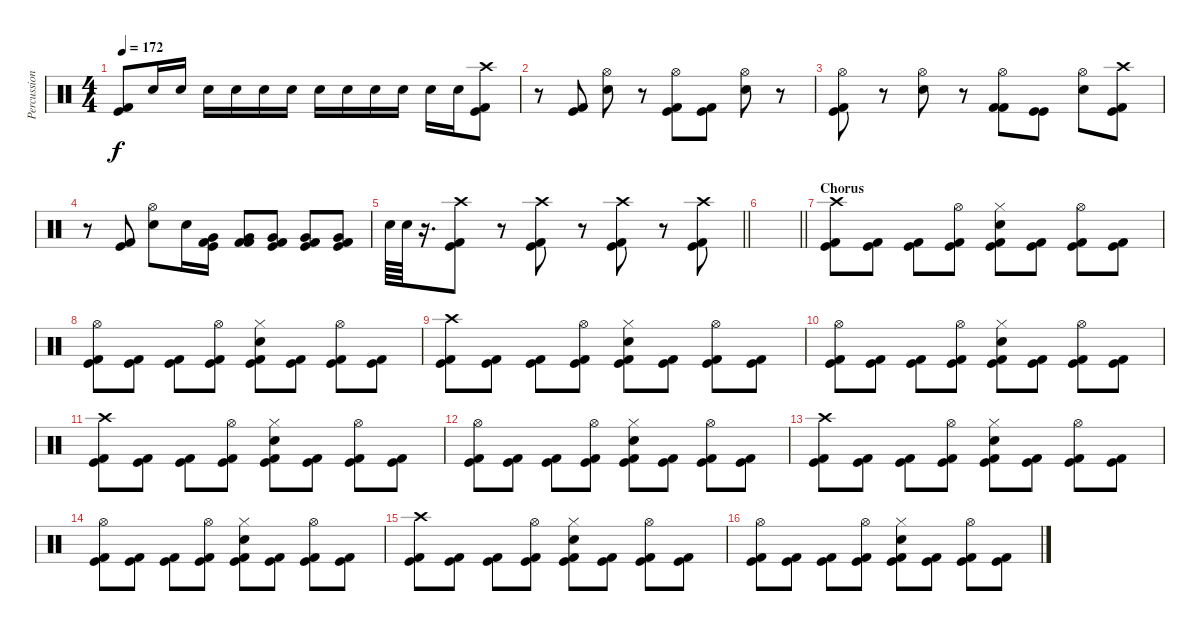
\track ("Percussion" "Percussion") {instrument percussion}
\staff {score}
\articulation defaults
\ts (4 4)
\tempo 172
\clef neutral
\ks c
("Kick (hit)" "Kick (hit) 2").8{dy f} "Snare (hit) 2".16 "Snare (hit) 2".16 "Snare (hit) 2".16 "Snare (hit) 2".16 "Snare (hit) 2".16 "Snare (hit) 2".16 "Snare (hit) 2".16 "Snare (hit) 2".16 "Snare (hit) 2".16 "Snare (hit) 2".16 "Snare (hit) 2".16 "Snare (hit) 2".16 ("Crash high (hit)" "Kick (hit)" "Kick (hit) 2").8 |
r.8 ("Kick (hit)" "Kick (hit) 2").8 ("Hi-Hat (open)" "Snare (hit) 2").8 r.8 ("Hi-Hat (open)" "Kick (hit)" "Kick (hit) 2").8 ("Kick (hit)" "Kick (hit) 2").8 ("Hi-Hat (open)" "Snare (hit) 2").8 r.8 |
("Hi-Hat (open)" "Kick (hit)" "Kick (hit) 2").8 r.8 ("Hi-Hat (open)" "Snare (hit) 2").8 r.8 ("Hi-Hat (open)" "Kick (hit) 2" "Kick (hit) 2").8 ("Kick (hit)" "Kick (hit)").8 ("Hi-Hat (open)" "Snare (hit) 2").8 ("Crash high (hit)" "Kick (hit)" "Kick (hit) 2").8 |
r.8 ("Kick (hit)" "Kick (hit) 2").8 ("Hi-Hat (open)" "Snare (hit) 2").8 "Snare (hit) 2".16 ("Very Low Tom (hit)" "Kick (hit)" "Kick (hit) 2").16 ("Very Low Tom (hit)" "Kick (hit) 2" "Kick (hit) 2").8 ("Very Low Tom (hit)" "Kick (hit)" "Kick (hit) 2").8 ("Very Low Tom (hit)" "Kick (hit)" "Kick (hit) 2").8 ("Very Low Tom (hit)" "Kick (hit)" "Kick (hit) 2").8 |
\barLineRight lightlight "Snare (hit) 2".64 "Snare (hit) 2".64
r.16{d} ("Crash high (hit)" "Kick (hit)" "Kick (hit) 2").8 r.8 ("Crash high (hit)" "Kick (hit)" "Kick (hit) 2").8 r.8 ("Crash high (hit)" "Kick (hit)" "Kick (hit) 2").8 r.8 ("Crash high (hit)" "Kick (hit)" "Kick (hit) 2").8 |
\barLineRight lightlight
|
\section ("" "Chorus")
("Crash high (hit)" "Kick (hit)" "Kick (hit) 2").8 ("Kick (hit)" "Kick (hit) 2").8 ("Kick (hit)" "Kick (hit) 2").8 ("Hi-Hat (open)" "Kick (hit)" "Kick (hit) 2").8 ("Hi-Hat (closed)" "Snare (hit) 2" "Kick (hit)" "Kick (hit) 2").8 ("Kick (hit)" "Kick (hit) 2").8 ("Hi-Hat (open)" "Kick (hit)" "Kick (hit) 2").8 ("Kick (hit)" "Kick (hit) 2").8 |
("Hi-Hat (open)" "Kick (hit)" "Kick (hit) 2").8 ("Kick (hit)" "Kick (hit) 2").8 ("Kick (hit)" "Kick (hit) 2").8 ("Hi-Hat (open)" "Kick (hit)" "Kick (hit) 2").8 ("Hi-Hat (closed)" "Snare (hit) 2" "Kick (hit)" "Kick (hit) 2").8 ("Kick (hit)" "Kick (hit) 2").8 ("Hi-Hat (open)" "Kick (hit)" "Kick (hit) 2").8 ("Kick (hit)" "Kick (hit) 2").8 |
("Crash high (hit)" "Kick (hit)" "Kick (hit) 2").8 ("Kick (hit)" "Kick (hit) 2").8 ("Kick (hit)" "Kick (hit) 2").8 ("Hi-Hat (open)" "Kick (hit)" "Kick (hit) 2").8 ("Hi-Hat (closed)" "Snare (hit) 2" "Kick (hit)" "Kick (hit) 2").8 ("Kick (hit)" "Kick (hit) 2").8 ("Hi-Hat (open)" "Kick (hit)" "Kick (hit) 2").8 ("Kick (hit)" "Kick (hit) 2").8 |
("Hi-Hat (open)" "Kick (hit)" "Kick (hit) 2").8 ("Kick (hit)" "Kick (hit) 2").8 ("Kick (hit)" "Kick (hit) 2").8 ("Hi-Hat (open)" "Kick (hit)" "Kick (hit) 2").8 ("Hi-Hat (closed)" "Snare (hit) 2" "Kick (hit)" "Kick (hit) 2").8 ("Kick (hit)" "Kick (hit) 2").8 ("Hi-Hat (open)" "Kick (hit)" "Kick (hit) 2").8 ("Kick (hit)" "Kick (hit) 2").8 |
("Crash high (hit)" "Kick (hit)" "Kick (hit) 2").8 ("Kick (hit)" "Kick (hit) 2").8 ("Kick (hit)" "Kick (hit) 2").8 ("Hi-Hat (open)" "Kick (hit)" "Kick (hit) 2").8 ("Hi-Hat (closed)" "Snare (hit) 2" "Kick (hit)" "Kick (hit) 2").8 ("Kick (hit)" "Kick (hit) 2").8 ("Hi-Hat (open)" "Kick (hit)" "Kick (hit) 2").8 ("Kick (hit)" "Kick (hit) 2").8 |
("Hi-Hat (open)" "Kick (hit)" "Kick (hit) 2").8 ("Kick (hit)" "Kick (hit) 2").8 ("Kick (hit)" "Kick (hit) 2").8 ("Hi-Hat (open)" "Kick (hit)" "Kick (hit) 2").8 ("Hi-Hat (closed)" "Snare (hit) 2" "Kick (hit)" "Kick (hit) 2").8 ("Kick (hit)" "Kick (hit) 2").8 ("Hi-Hat (open)" "Kick (hit)" "Kick (hit) 2").8 ("Kick (hit)" "Kick (hit) 2").8 |
("Crash high (hit)" "Kick (hit)" "Kick (hit) 2").8 ("Kick (hit)" "Kick (hit) 2").8 ("Kick (hit)" "Kick (hit) 2").8 ("Hi-Hat (open)" "Kick (hit)" "Kick (hit) 2").8 ("Hi-Hat (closed)" "Snare (hit) 2" "Kick (hit)" "Kick (hit) 2").8 ("Kick (hit)" "Kick (hit) 2").8 ("Hi-Hat (open)" "Kick (hit)" "Kick (hit) 2").8 ("Kick (hit)" "Kick (hit) 2").8 |
("Hi-Hat (open)" "Kick (hit)" "Kick (hit) 2").8 ("Kick (hit)" "Kick (hit) 2").8 ("Kick (hit)" "Kick (hit) 2").8 ("Hi-Hat (open)" "Kick (hit)" "Kick (hit) 2").8 ("Hi-Hat (closed)" "Snare (hit) 2" "Kick (hit)" "Kick (hit) 2").8 ("Kick (hit)" "Kick (hit) 2").8 ("Hi-Hat (open)" "Kick (hit)" "Kick (hit) 2").8 ("Kick (hit)" "Kick (hit) 2").8 |
("Crash high (hit)" "Kick (hit)" "Kick (hit) 2").8 ("Kick (hit)" "Kick (hit) 2").8 ("Kick (hit)" "Kick (hit) 2").8 ("Hi-Hat (open)" "Kick (hit)" "Kick (hit) 2").8 ("Hi-Hat (closed)" "Snare (hit) 2" "Kick (hit)" "Kick (hit) 2").8 ("Kick (hit)" "Kick (hit) 2").8 ("Hi-Hat (open)" "Kick (hit)" "Kick (hit) 2").8 ("Kick (hit)" "Kick (hit) 2").8 |
("Hi-Hat (open)" "Kick (hit)" "Kick (hit) 2").8 ("Kick (hit)" "Kick (hit) 2").8 ("Kick (hit)" "Kick (hit) 2").8 ("Hi-Hat (open)" "Kick (hit)" "Kick (hit) 2").8 ("Hi-Hat (closed)" "Snare (hit) 2" "Kick (hit)" "Kick (hit) 2").8 ("Kick (hit)" "Kick (hit) 2").8 ("Hi-Hat (open)" "Kick (hit)" "Kick (hit) 2").8 ("Kick (hit)" "Kick (hit) 2").8
